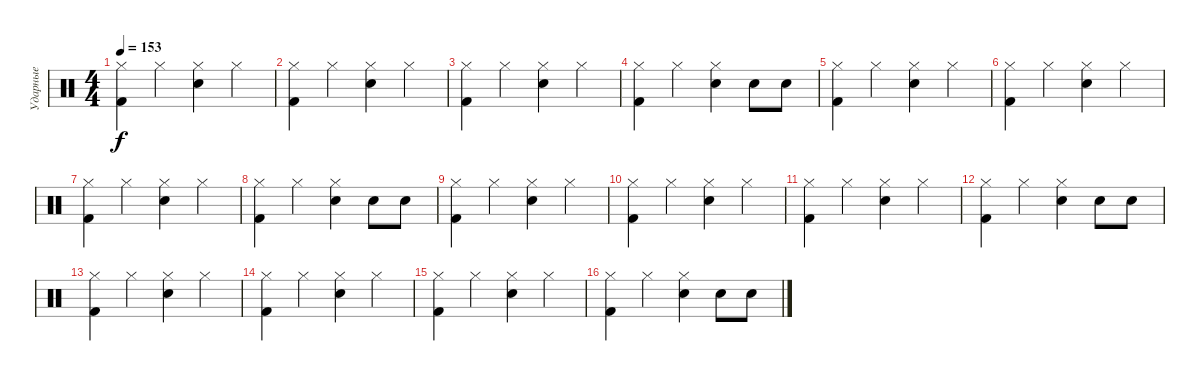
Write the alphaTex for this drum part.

\track ("Ударные" "Ударные") {instrument percussion}
\staff {score}
\articulation defaults
\ts (4 4)
\tempo 153
\clef neutral
\ks c
("Hi-Hat (closed)" "Kick (hit) 2").4{dy f} "Hi-Hat (closed)".4 ("Hi-Hat (closed)" "Snare (hit) 2").4 "Hi-Hat (closed)".4 |
("Hi-Hat (closed)" "Kick (hit) 2").4 "Hi-Hat (closed)".4 ("Hi-Hat (closed)" "Snare (hit) 2").4 "Hi-Hat (closed)".4 |
("Hi-Hat (closed)" "Kick (hit) 2").4 "Hi-Hat (closed)".4 ("Hi-Hat (closed)" "Snare (hit) 2").4 "Hi-Hat (closed)".4 |
("Hi-Hat (closed)" "Kick (hit) 2").4 "Hi-Hat (closed)".4 ("Hi-Hat (closed)" "Snare (hit) 2").4 "Snare (hit) 2".8 "Snare (hit) 2".8 |
("Hi-Hat (closed)" "Kick (hit) 2").4 "Hi-Hat (closed)".4 ("Hi-Hat (closed)" "Snare (hit) 2").4 "Hi-Hat (closed)".4 |
("Hi-Hat (closed)" "Kick (hit) 2").4 "Hi-Hat (closed)".4 ("Hi-Hat (closed)" "Snare (hit) 2").4 "Hi-Hat (closed)".4 |
("Hi-Hat (closed)" "Kick (hit) 2").4 "Hi-Hat (closed)".4 ("Hi-Hat (closed)" "Snare (hit) 2").4 "Hi-Hat (closed)".4 |
("Hi-Hat (closed)" "Kick (hit) 2").4 "Hi-Hat (closed)".4 ("Hi-Hat (closed)" "Snare (hit) 2").4 "Snare (hit) 2".8 "Snare (hit) 2".8 |
("Hi-Hat (closed)" "Kick (hit) 2").4 "Hi-Hat (closed)".4 ("Hi-Hat (closed)" "Snare (hit) 2").4 "Hi-Hat (closed)".4 |
("Hi-Hat (closed)" "Kick (hit) 2").4 "Hi-Hat (closed)".4 ("Hi-Hat (closed)" "Snare (hit) 2").4 "Hi-Hat (closed)".4 |
("Hi-Hat (closed)" "Kick (hit) 2").4 "Hi-Hat (closed)".4 ("Hi-Hat (closed)" "Snare (hit) 2").4 "Hi-Hat (closed)".4 |
("Hi-Hat (closed)" "Kick (hit) 2").4 "Hi-Hat (closed)".4 ("Hi-Hat (closed)" "Snare (hit) 2").4 "Snare (hit) 2".8 "Snare (hit) 2".8 |
("Hi-Hat (closed)" "Kick (hit) 2").4 "Hi-Hat (closed)".4 ("Hi-Hat (closed)" "Snare (hit) 2").4 "Hi-Hat (closed)".4 |
("Hi-Hat (closed)" "Kick (hit) 2").4 "Hi-Hat (closed)".4 ("Hi-Hat (closed)" "Snare (hit) 2").4 "Hi-Hat (closed)".4 |
("Hi-Hat (closed)" "Kick (hit) 2").4 "Hi-Hat (closed)".4 ("Hi-Hat (closed)" "Snare (hit) 2").4 "Hi-Hat (closed)".4 |
("Hi-Hat (closed)" "Kick (hit) 2").4 "Hi-Hat (closed)".4 ("Hi-Hat (closed)" "Snare (hit) 2").4 "Snare (hit) 2".8 "Snare (hit) 2".8
